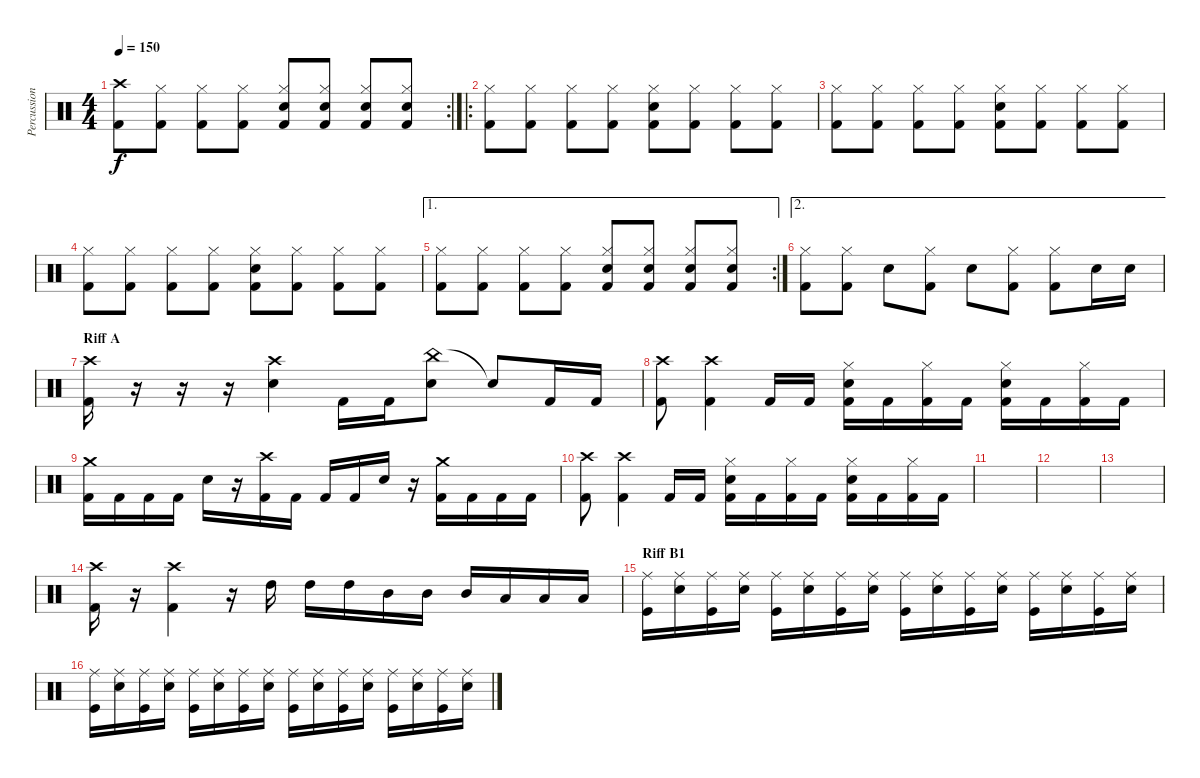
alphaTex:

\track ("Percussions" "Percussion") {instrument percussion}
\staff {score}
\articulation defaults
\rc 2
\ts (4 4)
\tempo 150
\clef neutral
\ks c
("Crash high (hit)" "Kick (hit) 2").8{dy f} ("Hi-Hat (closed)" "Kick (hit) 2").8 ("Hi-Hat (closed)" "Kick (hit) 2").8 ("Hi-Hat (closed)" "Kick (hit) 2").8 ("Hi-Hat (closed)" "Snare (hit) 2" "Kick (hit) 2").8 ("Hi-Hat (closed)" "Snare (hit) 2" "Kick (hit) 2").8 ("Hi-Hat (closed)" "Snare (hit) 2" "Kick (hit) 2").8 ("Hi-Hat (closed)" "Snare (hit) 2" "Kick (hit) 2").8 |
\ro
("Hi-Hat (closed)" "Kick (hit) 2").8 ("Hi-Hat (closed)" "Kick (hit) 2").8 ("Hi-Hat (closed)" "Kick (hit) 2").8 ("Hi-Hat (closed)" "Kick (hit) 2").8 ("Hi-Hat (closed)" "Snare (hit) 2" "Kick (hit) 2").8 ("Hi-Hat (closed)" "Kick (hit) 2").8 ("Hi-Hat (closed)" "Kick (hit) 2").8 ("Hi-Hat (closed)" "Kick (hit) 2").8 |
("Hi-Hat (closed)" "Kick (hit) 2").8 ("Hi-Hat (closed)" "Kick (hit) 2").8 ("Hi-Hat (closed)" "Kick (hit) 2").8 ("Hi-Hat (closed)" "Kick (hit) 2").8 ("Hi-Hat (closed)" "Snare (hit) 2" "Kick (hit) 2").8 ("Hi-Hat (closed)" "Kick (hit) 2").8 ("Hi-Hat (closed)" "Kick (hit) 2").8 ("Hi-Hat (closed)" "Kick (hit) 2").8 |
("Hi-Hat (closed)" "Kick (hit) 2").8 ("Hi-Hat (closed)" "Kick (hit) 2").8 ("Hi-Hat (closed)" "Kick (hit) 2").8 ("Hi-Hat (closed)" "Kick (hit) 2").8 ("Hi-Hat (closed)" "Snare (hit) 2" "Kick (hit) 2").8 ("Hi-Hat (closed)" "Kick (hit) 2").8 ("Hi-Hat (closed)" "Kick (hit) 2").8 ("Hi-Hat (closed)" "Kick (hit) 2").8 |
\ae 1
\rc 2
("Hi-Hat (closed)" "Kick (hit) 2").8 ("Hi-Hat (closed)" "Kick (hit) 2").8 ("Hi-Hat (closed)" "Kick (hit) 2").8 ("Hi-Hat (closed)" "Kick (hit) 2").8 ("Hi-Hat (closed)" "Snare (hit) 2" "Kick (hit) 2").8 ("Hi-Hat (closed)" "Snare (hit) 2" "Kick (hit) 2").8 ("Hi-Hat (closed)" "Snare (hit) 2" "Kick (hit) 2").8 ("Hi-Hat (closed)" "Snare (hit) 2" "Kick (hit) 2").8 |
\ae 2
("Hi-Hat (closed)" "Kick (hit) 2").8 ("Hi-Hat (closed)" "Kick (hit) 2").8 "Snare (hit) 2".8 ("Hi-Hat (closed)" "Kick (hit) 2").8 "Snare (hit) 2".8 ("Hi-Hat (closed)" "Kick (hit) 2").8 ("Hi-Hat (closed)" "Kick (hit) 2").8 "Snare (hit) 2".16 "Snare (hit) 2".16 |
\section ("" "Riff A")
("Crash high (hit)" "Kick (hit) 2").16 r.16 r.16 r.16 ("Crash high (hit)" "Snare (hit) 2").4 "Kick (hit) 2".16 "Kick (hit) 2".16 ("China (hit)" "Snare (hit) 2").8 "Snare (hit)"{t}.8 "Kick (hit) 2".16 "Kick (hit) 2".16 |
("Crash high (hit)" "Kick (hit) 2").8 ("Crash high (hit)" "Kick (hit) 2").4 "Kick (hit) 2".16 "Kick (hit) 2".16 ("Hi-Hat (closed)" "Snare (hit) 2" "Kick (hit) 2").16 "Kick (hit) 2".16 ("Hi-Hat (closed)" "Kick (hit) 2").16 "Kick (hit) 2".16 ("Hi-Hat (closed)" "Snare (hit) 2" "Kick (hit) 2").16 "Kick (hit) 2".16 ("Hi-Hat (closed)" "Kick (hit) 2").16 "Kick (hit) 2".16 |
("Crash medium (hit)" "Kick (hit) 2").16 "Kick (hit) 2".16 "Kick (hit) 2".16 "Kick (hit) 2".16 "Snare (hit) 2".16 r.16 ("Crash high (hit)" "Kick (hit) 2").16 "Kick (hit) 2".16 "Kick (hit) 2".16 "Kick (hit) 2".16 "Snare (hit) 2".16 r.16 ("Crash medium (hit)" "Kick (hit) 2").16 "Kick (hit) 2".16 "Kick (hit) 2".16 "Kick (hit) 2".16 |
("Crash high (hit)" "Kick (hit) 2").8 ("Crash high (hit)" "Kick (hit) 2").4 "Kick (hit) 2".16 "Kick (hit) 2".16 ("Hi-Hat (closed)" "Snare (hit) 2" "Kick (hit) 2").16 "Kick (hit) 2".16 ("Hi-Hat (closed)" "Kick (hit) 2").16 "Kick (hit) 2".16 ("Hi-Hat (closed)" "Snare (hit) 2" "Kick (hit) 2").16 "Kick (hit) 2".16 ("Hi-Hat (closed)" "Kick (hit) 2").16 "Kick (hit) 2".16 |
|
|
|
("Crash high (hit)" "Kick (hit) 2").16 r.16 ("Crash high (hit)" "Kick (hit) 2").4 r.16 "High Tom (hit)".16 "High Tom (hit)".16 "High Tom (hit)".16 "Mid Tom (hit)".16 "Mid Tom (hit)".16 "Mid Tom (hit)".16 "Low Tom (hit)".16 "Low Tom (hit)".16 "Low Tom (hit)".16 |
\section ("" "Riff B1")
("Ride (middle)" "Kick (hit)").16 ("Ride (middle)" "Snare (hit) 2").16 ("Ride (middle)" "Kick (hit)").16 ("Ride (middle)" "Snare (hit) 2").16 ("Ride (middle)" "Kick (hit)").16 ("Ride (middle)" "Snare (hit) 2").16 ("Ride (middle)" "Kick (hit)").16 ("Ride (middle)" "Snare (hit) 2").16 ("Ride (middle)" "Kick (hit)").16 ("Ride (middle)" "Snare (hit) 2").16 ("Ride (middle)" "Kick (hit)").16 ("Ride (middle)" "Snare (hit) 2").16 ("Ride (middle)" "Kick (hit)").16 ("Ride (middle)" "Snare (hit) 2").16 ("Ride (middle)" "Kick (hit)").16 ("Ride (middle)" "Snare (hit) 2").16 |
("Ride (middle)" "Kick (hit)").16 ("Ride (middle)" "Snare (hit) 2").16 ("Ride (middle)" "Kick (hit)").16 ("Ride (middle)" "Snare (hit) 2").16 ("Ride (middle)" "Kick (hit)").16 ("Ride (middle)" "Snare (hit) 2").16 ("Ride (middle)" "Kick (hit)").16 ("Ride (middle)" "Snare (hit) 2").16 ("Ride (middle)" "Kick (hit)").16 ("Ride (middle)" "Snare (hit) 2").16 ("Ride (middle)" "Kick (hit)").16 ("Ride (middle)" "Snare (hit) 2").16 ("Ride (middle)" "Kick (hit)").16 ("Ride (middle)" "Snare (hit) 2").16 ("Ride (middle)" "Kick (hit)").16 ("Ride (middle)" "Snare (hit) 2").16
